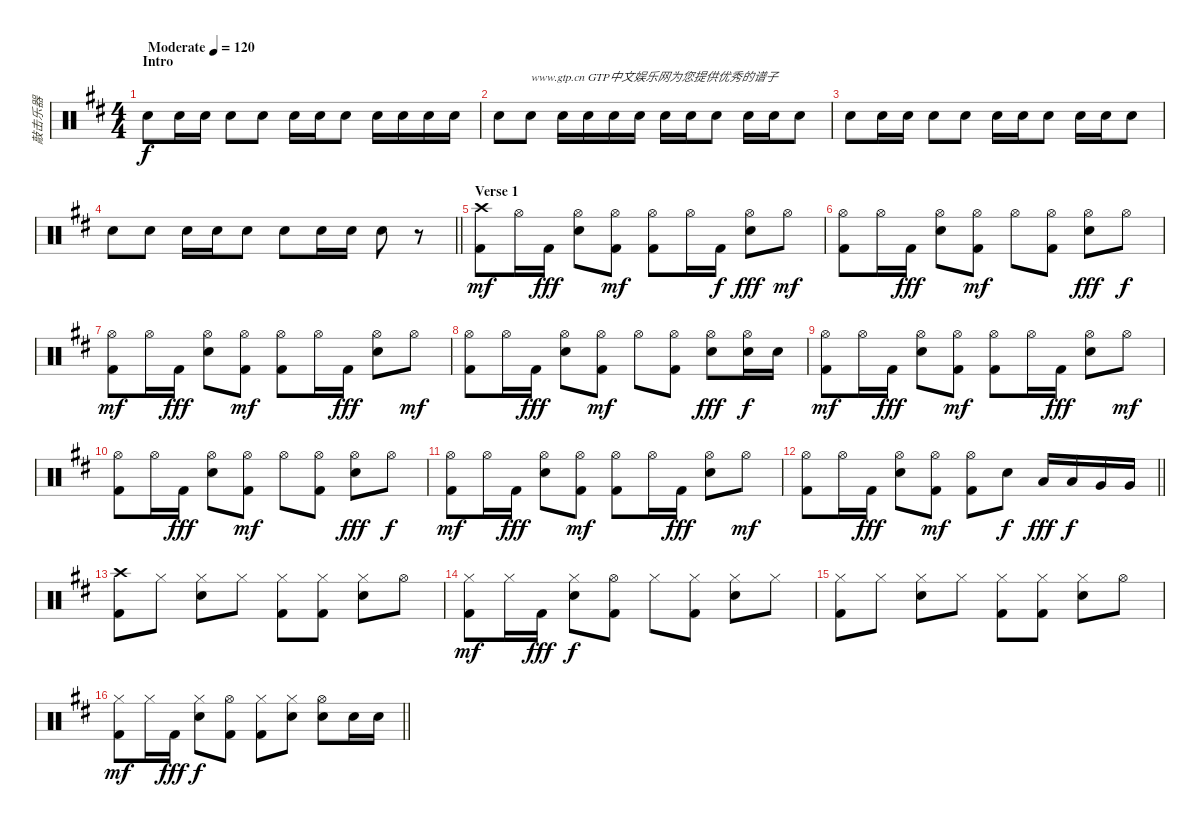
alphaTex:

\track ("敲击乐器" "敲击乐器") {instrument percussion}
\staff {score}
\articulation defaults
\ts (4 4)
\section ("" "Intro")
\tempo (120 "Moderate")
\clef neutral
\ks d "Electric Snare (hit)".8{dy f} "Electric Snare (hit)".16 "Electric Snare (hit)".16 "Electric Snare (hit)".8 "Electric Snare (hit)".8 "Electric Snare (hit)".16 "Electric Snare (hit)".16 "Electric Snare (hit)".8 "Electric Snare (hit)".16 "Electric Snare (hit)".16 "Electric Snare (hit)".16 "Electric Snare (hit)".16
|
"Electric Snare (hit)".8 "Electric Snare (hit)".8{txt "www.gtp.cn GTP中文娱乐网为您提供优秀的谱子"} "Electric Snare (hit)".16 "Electric Snare (hit)".16 "Electric Snare (hit)".16 "Electric Snare (hit)".16 "Electric Snare (hit)".16 "Electric Snare (hit)".16 "Electric Snare (hit)".8 "Electric Snare (hit)".16 "Electric Snare (hit)".16 "Electric Snare (hit)".8 |
"Electric Snare (hit)".8 "Electric Snare (hit)".16 "Electric Snare (hit)".16 "Electric Snare (hit)".8 "Electric Snare (hit)".8 "Electric Snare (hit)".16 "Electric Snare (hit)".16 "Electric Snare (hit)".8 "Electric Snare (hit)".16 "Electric Snare (hit)".16 "Electric Snare (hit)".8 |
\barLineRight lightlight "Electric Snare (hit)".8 "Electric Snare (hit)".8 "Electric Snare (hit)".16 "Electric Snare (hit)".16 "Electric Snare (hit)".8 "Electric Snare (hit)".8 "Electric Snare (hit)".16 "Electric Snare (hit)".16 "Electric Snare (hit)".8
r.8 |
\section ("" "Verse 1")
("Kick (hit) 2" "Crash high (hit)").8{dy mf} "Hi-Hat (open)".16 "Kick (hit) 2".16{dy fff} ("Hi-Hat (open)" "Electric Snare (hit)").8 ("Kick (hit) 2" "Hi-Hat (open)").8{dy mf} ("Kick (hit) 2" "Hi-Hat (open)").8 "Hi-Hat (open)".16 "Kick (hit) 2".16{dy f} ("Hi-Hat (open)" "Electric Snare (hit)").8{dy fff} "Hi-Hat (open)".8{dy mf} |
("Kick (hit) 2" "Hi-Hat (open)").8 "Hi-Hat (open)".16 "Kick (hit) 2".16{dy fff} ("Hi-Hat (open)" "Electric Snare (hit)").8 ("Kick (hit) 2" "Hi-Hat (open)").8{dy mf} "Hi-Hat (open)".8 ("Kick (hit) 2" "Hi-Hat (open)").8 ("Hi-Hat (open)" "Electric Snare (hit)").8{dy fff} "Hi-Hat (open)".8{dy f} |
("Kick (hit) 2" "Hi-Hat (open)").8{dy mf} "Hi-Hat (open)".16 "Kick (hit) 2".16{dy fff} ("Hi-Hat (open)" "Electric Snare (hit)").8 ("Kick (hit) 2" "Hi-Hat (open)").8{dy mf} ("Kick (hit) 2" "Hi-Hat (open)").8 "Hi-Hat (open)".16 "Kick (hit) 2".16{dy fff} ("Hi-Hat (open)" "Electric Snare (hit)").8 "Hi-Hat (open)".8{dy mf} |
("Kick (hit) 2" "Hi-Hat (open)").8 "Hi-Hat (open)".16 "Kick (hit) 2".16{dy fff} ("Hi-Hat (open)" "Electric Snare (hit)").8 ("Kick (hit) 2" "Hi-Hat (open)").8{dy mf} "Hi-Hat (open)".8 ("Kick (hit) 2" "Hi-Hat (open)").8 ("Hi-Hat (open)" "Electric Snare (hit)").8{dy fff} ("Electric Snare (hit)" "Hi-Hat (open)").16{dy f} "Electric Snare (hit)".16 |
("Kick (hit) 2" "Hi-Hat (open)").8{dy mf} "Hi-Hat (open)".16 "Kick (hit) 2".16{dy fff} ("Hi-Hat (open)" "Electric Snare (hit)").8 ("Kick (hit) 2" "Hi-Hat (open)").8{dy mf} ("Kick (hit) 2" "Hi-Hat (open)").8 "Hi-Hat (open)".16 "Kick (hit) 2".16{dy fff} ("Hi-Hat (open)" "Electric Snare (hit)").8 "Hi-Hat (open)".8{dy mf} |
("Kick (hit) 2" "Hi-Hat (open)").8 "Hi-Hat (open)".16 "Kick (hit) 2".16{dy fff} ("Hi-Hat (open)" "Electric Snare (hit)").8 ("Kick (hit) 2" "Hi-Hat (open)").8{dy mf} "Hi-Hat (open)".8 ("Kick (hit) 2" "Hi-Hat (open)").8 ("Hi-Hat (open)" "Electric Snare (hit)").8{dy fff} "Hi-Hat (open)".8{dy f} |
("Kick (hit) 2" "Hi-Hat (open)").8{dy mf} "Hi-Hat (open)".16 "Kick (hit) 2".16{dy fff} ("Hi-Hat (open)" "Electric Snare (hit)").8 ("Kick (hit) 2" "Hi-Hat (open)").8{dy mf} ("Kick (hit) 2" "Hi-Hat (open)").8 "Hi-Hat (open)".16 "Kick (hit) 2".16{dy fff} ("Hi-Hat (open)" "Electric Snare (hit)").8 "Hi-Hat (open)".8{dy mf} |
\barLineRight lightlight
("Kick (hit) 2" "Hi-Hat (open)").8 "Hi-Hat (open)".16 "Kick (hit) 2".16{dy fff} ("Hi-Hat (open)" "Electric Snare (hit)").8 ("Kick (hit) 2" "Hi-Hat (open)").8{dy mf} ("Kick (hit) 2" "Hi-Hat (open)").8 "Electric Snare (hit)".8{dy f} "Low Tom (hit)".16{dy fff} "Low Tom (hit)".16{dy f} "Very Low Tom (hit)".16 "Very Low Tom (hit)".16 |
\section ("" "")
("Crash high (hit)" "Kick (hit) 2").8 "Hi-Hat (closed)".8 ("Hi-Hat (closed)" "Electric Snare (hit)").8 "Hi-Hat (closed)".8 ("Hi-Hat (closed)" "Kick (hit) 2").8 ("Hi-Hat (closed)" "Kick (hit) 2").8 ("Hi-Hat (closed)" "Electric Snare (hit)").8 "Hi-Hat (open)".8 |
("Kick (hit) 2" "Hi-Hat (closed)").8{dy mf} "Hi-Hat (closed)".16 "Kick (hit) 2".16{dy fff} ("Hi-Hat (closed)" "Electric Snare (hit)").8{dy f} ("Hi-Hat (open)" "Kick (hit) 2").8 "Hi-Hat (closed)".8 ("Hi-Hat (closed)" "Kick (hit) 2").8 ("Hi-Hat (closed)" "Electric Snare (hit)").8 "Hi-Hat (closed)".8 |
("Hi-Hat (closed)" "Kick (hit) 2").8 "Hi-Hat (closed)".8 ("Hi-Hat (closed)" "Electric Snare (hit)").8 "Hi-Hat (closed)".8 ("Hi-Hat (closed)" "Kick (hit) 2").8 ("Hi-Hat (closed)" "Kick (hit) 2").8 ("Hi-Hat (closed)" "Electric Snare (hit)").8 "Hi-Hat (open)".8 |
\barLineRight lightlight
("Kick (hit) 2" "Hi-Hat (closed)").8{dy mf} "Hi-Hat (closed)".16 "Kick (hit) 2".16{dy fff} ("Hi-Hat (closed)" "Electric Snare (hit)").8{dy f} ("Hi-Hat (open)" "Kick (hit) 2").8 ("Hi-Hat (closed)" "Kick (hit) 2").8 ("Hi-Hat (closed)" "Electric Snare (hit)").8 ("Hi-Hat (open)" "Electric Snare (hit)").8 "Electric Snare (hit)".16 "Electric Snare (hit)".16
